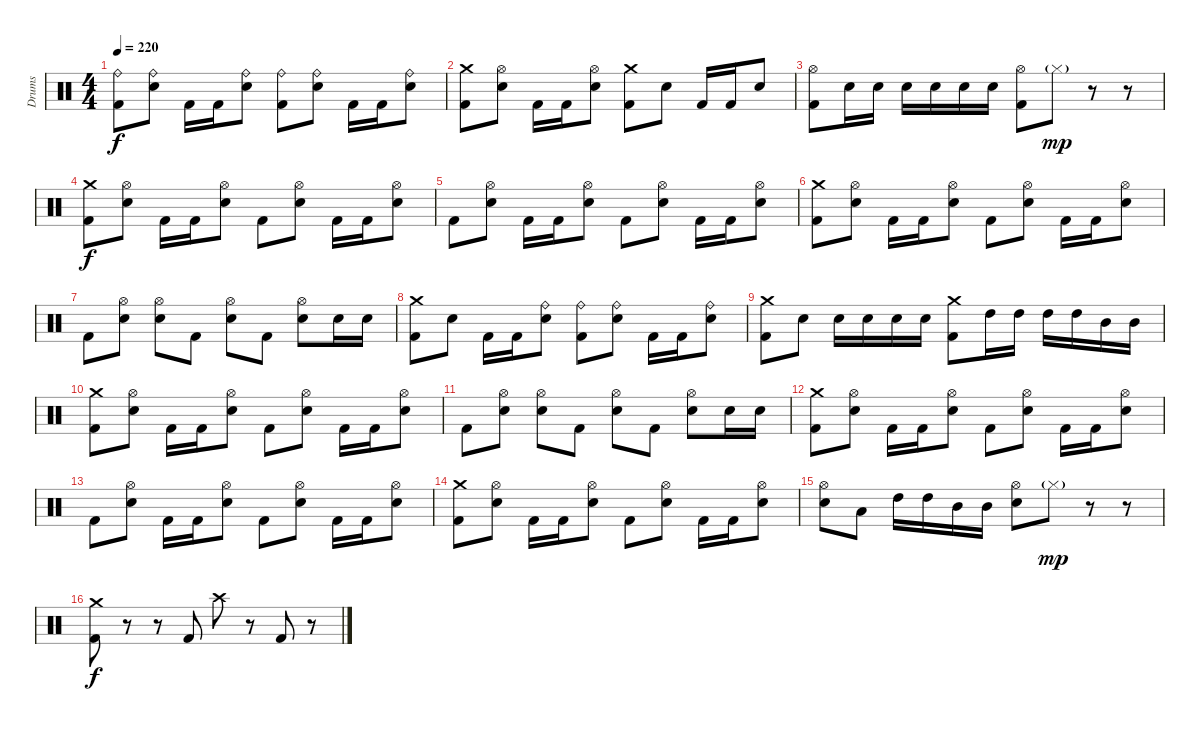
\track ("Drums" "Drums") {instrument percussion}
\staff {score}
\articulation defaults
\ts (4 4)
\tempo 220
\clef neutral
\ks c
("Ride (bell)" "Kick (hit) 2").8{dy f} ("Ride (bell)" "Electric Snare (hit)").8 "Kick (hit) 2".16 "Kick (hit) 2".16 ("Ride (bell)" "Electric Snare (hit)").8 ("Ride (bell)" "Kick (hit) 2").8 ("Ride (bell)" "Electric Snare (hit)").8 "Kick (hit) 2".16 "Kick (hit) 2".16 ("Ride (bell)" "Electric Snare (hit)").8 |
("Crash medium (hit)" "Kick (hit) 2").8 ("Hi-Hat (open)" "Electric Snare (hit)").8 "Kick (hit) 2".16 "Kick (hit) 2".16 ("Hi-Hat (open)" "Electric Snare (hit)").8 ("Crash medium (hit)" "Kick (hit) 2").8 "Electric Snare (hit)".8 "Kick (hit) 2".16 "Kick (hit) 2".16 "Electric Snare (hit)".8 |
("Hi-Hat (open)" "Kick (hit) 2").8 "Electric Snare (hit)".16 "Electric Snare (hit)".16 "Electric Snare (hit)".16 "Electric Snare (hit)".16 "Electric Snare (hit)".16 "Electric Snare (hit)".16 ("Hi-Hat (open)" "Kick (hit) 2").8 "Hi-Hat (closed)"{g}.8{dy mp} r.8 r.8 |
("Crash medium (hit)" "Kick (hit) 2").8{dy f} ("Hi-Hat (open)" "Electric Snare (hit)").8 "Kick (hit) 2".16 "Kick (hit) 2".16 ("Hi-Hat (open)" "Electric Snare (hit)").8 "Kick (hit) 2".8 ("Hi-Hat (open)" "Electric Snare (hit)").8 "Kick (hit) 2".16 "Kick (hit) 2".16 ("Hi-Hat (open)" "Electric Snare (hit)").8 |
"Kick (hit) 2".8 ("Hi-Hat (open)" "Electric Snare (hit)").8 "Kick (hit) 2".16 "Kick (hit) 2".16 ("Hi-Hat (open)" "Electric Snare (hit)").8 "Kick (hit) 2".8 ("Hi-Hat (open)" "Electric Snare (hit)").8 "Kick (hit) 2".16 "Kick (hit) 2".16 ("Hi-Hat (open)" "Electric Snare (hit)").8 |
("Crash medium (hit)" "Kick (hit) 2").8 ("Hi-Hat (open)" "Electric Snare (hit)").8 "Kick (hit) 2".16 "Kick (hit) 2".16 ("Hi-Hat (open)" "Electric Snare (hit)").8 "Kick (hit) 2".8 ("Hi-Hat (open)" "Electric Snare (hit)").8 "Kick (hit) 2".16 "Kick (hit) 2".16 ("Hi-Hat (open)" "Electric Snare (hit)").8 |
"Kick (hit) 2".8 ("Hi-Hat (open)" "Electric Snare (hit)").8 ("Hi-Hat (open)" "Electric Snare (hit)").8 "Kick (hit) 2".8 ("Hi-Hat (open)" "Electric Snare (hit)").8 "Kick (hit) 2".8 ("Hi-Hat (open)" "Electric Snare (hit)").8 "Electric Snare (hit)".16 "Electric Snare (hit)".16 |
("Crash medium (hit)" "Kick (hit) 2").8 "Electric Snare (hit)".8 "Kick (hit) 2".16 "Kick (hit) 2".16 ("Ride (bell)" "Electric Snare (hit)").8 ("Ride (bell)" "Kick (hit) 2").8 ("Ride (bell)" "Electric Snare (hit)").8 "Kick (hit) 2".16 "Kick (hit) 2".16 ("Ride (bell)" "Electric Snare (hit)").8 |
("Crash medium (hit)" "Kick (hit) 2").8 "Electric Snare (hit)".8 "Electric Snare (hit)".16 "Electric Snare (hit)".16 "Electric Snare (hit)".16 "Electric Snare (hit)".16 ("Crash medium (hit)" "Kick (hit) 2").8 "High Tom (hit)".16 "High Tom (hit)".16 "High Tom (hit)".16 "High Tom (hit)".16 "Mid Tom (hit)".16 "Mid Tom (hit)".16 |
("Crash medium (hit)" "Kick (hit) 2").8 ("Hi-Hat (open)" "Electric Snare (hit)").8 "Kick (hit) 2".16 "Kick (hit) 2".16 ("Hi-Hat (open)" "Electric Snare (hit)").8 "Kick (hit) 2".8 ("Hi-Hat (open)" "Electric Snare (hit)").8 "Kick (hit) 2".16 "Kick (hit) 2".16 ("Hi-Hat (open)" "Electric Snare (hit)").8 |
"Kick (hit) 2".8 ("Hi-Hat (open)" "Electric Snare (hit)").8 ("Hi-Hat (open)" "Electric Snare (hit)").8 "Kick (hit) 2".8 ("Hi-Hat (open)" "Electric Snare (hit)").8 "Kick (hit) 2".8 ("Hi-Hat (open)" "Electric Snare (hit)").8 "Electric Snare (hit)".16 "Electric Snare (hit)".16 |
("Crash medium (hit)" "Kick (hit) 2").8 ("Hi-Hat (open)" "Electric Snare (hit)").8 "Kick (hit) 2".16 "Kick (hit) 2".16 ("Hi-Hat (open)" "Electric Snare (hit)").8 "Kick (hit) 2".8 ("Hi-Hat (open)" "Electric Snare (hit)").8 "Kick (hit) 2".16 "Kick (hit) 2".16 ("Hi-Hat (open)" "Electric Snare (hit)").8 |
"Kick (hit) 2".8 ("Hi-Hat (open)" "Electric Snare (hit)").8 "Kick (hit) 2".16 "Kick (hit) 2".16 ("Hi-Hat (open)" "Electric Snare (hit)").8 "Kick (hit) 2".8 ("Hi-Hat (open)" "Electric Snare (hit)").8 "Kick (hit) 2".16 "Kick (hit) 2".16 ("Hi-Hat (open)" "Electric Snare (hit)").8 |
("Crash medium (hit)" "Kick (hit) 2").8 ("Hi-Hat (open)" "Electric Snare (hit)").8 "Kick (hit) 2".16 "Kick (hit) 2".16 ("Hi-Hat (open)" "Electric Snare (hit)").8 "Kick (hit) 2".8 ("Hi-Hat (open)" "Electric Snare (hit)").8 "Kick (hit) 2".16 "Kick (hit) 2".16 ("Hi-Hat (open)" "Electric Snare (hit)").8 |
("Hi-Hat (open)" "Electric Snare (hit)").8 "Low Floor Tom (hit)".8 "High Tom (hit)".16 "High Tom (hit)".16 "Mid Tom (hit)".16 "Mid Tom (hit)".16 ("Hi-Hat (open)" "Electric Snare (hit)").8 "Hi-Hat (closed)"{g}.8{dy mp} r.8 r.8 |
("Crash medium (hit)" "Kick (hit) 2").8{dy f} r.8 r.8 "Kick (hit) 2".8 "Crash high (hit)".8 r.8 "Kick (hit) 2".8 r.8
